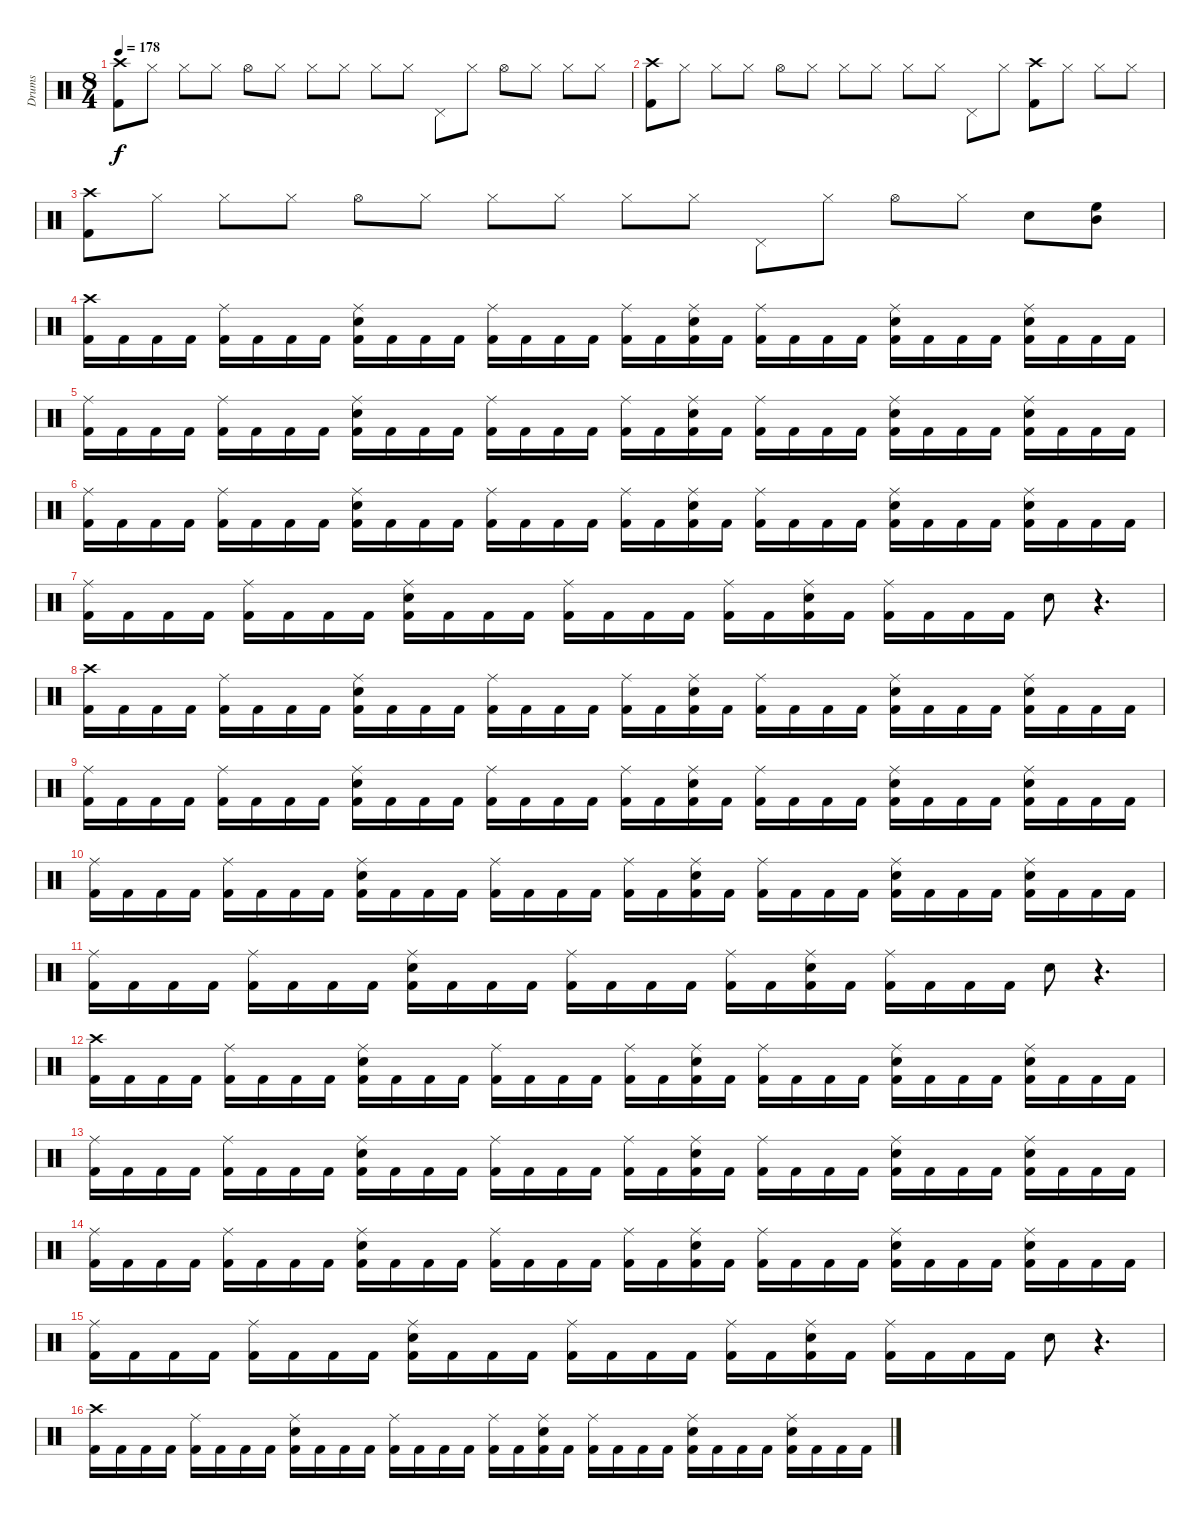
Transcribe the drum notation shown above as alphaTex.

\track ("Drums" "Drums") {instrument percussion}
\staff {score}
\articulation defaults
\ts (8 4)
\tempo 178
\clef neutral
\ks c
("Crash high (hit)" "Kick (hit) 2").8{dy f} "Hi-Hat (closed)".8 "Hi-Hat (closed)".8 "Hi-Hat (closed)".8 "Hi-Hat (open)".8 "Hi-Hat (closed)".8 "Hi-Hat (closed)".8 "Hi-Hat (closed)".8 "Hi-Hat (closed)".8 "Hi-Hat (closed)".8 "Pedal Hi-Hat (hit)".8 "Hi-Hat (closed)".8 "Hi-Hat (open)".8 "Hi-Hat (closed)".8 "Hi-Hat (closed)".8 "Hi-Hat (closed)".8 |
("Crash high (hit)" "Kick (hit) 2").8 "Hi-Hat (closed)".8 "Hi-Hat (closed)".8 "Hi-Hat (closed)".8 "Hi-Hat (open)".8 "Hi-Hat (closed)".8 "Hi-Hat (closed)".8 "Hi-Hat (closed)".8 "Hi-Hat (closed)".8 "Hi-Hat (closed)".8 "Pedal Hi-Hat (hit)".8 "Hi-Hat (closed)".8 ("Crash high (hit)" "Kick (hit) 2").8 "Hi-Hat (closed)".8 "Hi-Hat (closed)".8 "Hi-Hat (closed)".8 |
("Crash high (hit)" "Kick (hit) 2").8 "Hi-Hat (closed)".8 "Hi-Hat (closed)".8 "Hi-Hat (closed)".8 "Hi-Hat (open)".8 "Hi-Hat (closed)".8 "Hi-Hat (closed)".8 "Hi-Hat (closed)".8 "Hi-Hat (closed)".8 "Hi-Hat (closed)".8 "Pedal Hi-Hat (hit)".8 "Hi-Hat (closed)".8 "Hi-Hat (open)".8 "Hi-Hat (closed)".8 "Snare (hit) 2".8 ("Mid Tom (hit)" "High Floor Tom (hit)").8 |
("Crash high (hit)" "Kick (hit) 2").16 "Kick (hit) 2".16 "Kick (hit) 2".16 "Kick (hit) 2".16 ("Ride (middle)" "Kick (hit) 2").16 "Kick (hit) 2".16 "Kick (hit) 2".16 "Kick (hit) 2".16 ("Ride (middle)" "Snare (hit) 2" "Kick (hit) 2").16 "Kick (hit) 2".16 "Kick (hit) 2".16 "Kick (hit) 2".16 ("Ride (middle)" "Kick (hit) 2").16 "Kick (hit) 2".16 "Kick (hit) 2".16 "Kick (hit) 2".16 ("Ride (middle)" "Kick (hit) 2").16 "Kick (hit) 2".16 ("Ride (middle)" "Snare (hit) 2" "Kick (hit) 2").16 "Kick (hit) 2".16 ("Ride (middle)" "Kick (hit) 2").16 "Kick (hit) 2".16 "Kick (hit) 2".16 "Kick (hit) 2".16 ("Ride (middle)" "Snare (hit) 2" "Kick (hit) 2").16 "Kick (hit) 2".16 "Kick (hit) 2".16 "Kick (hit) 2".16 ("Ride (middle)" "Snare (hit) 2" "Kick (hit) 2").16 "Kick (hit) 2".16 "Kick (hit) 2".16 "Kick (hit) 2".16 |
("Ride (middle)" "Kick (hit) 2").16 "Kick (hit) 2".16 "Kick (hit) 2".16 "Kick (hit) 2".16 ("Ride (middle)" "Kick (hit) 2").16 "Kick (hit) 2".16 "Kick (hit) 2".16 "Kick (hit) 2".16 ("Ride (middle)" "Snare (hit) 2" "Kick (hit) 2").16 "Kick (hit) 2".16 "Kick (hit) 2".16 "Kick (hit) 2".16 ("Ride (middle)" "Kick (hit) 2").16 "Kick (hit) 2".16 "Kick (hit) 2".16 "Kick (hit) 2".16 ("Ride (middle)" "Kick (hit) 2").16 "Kick (hit) 2".16 ("Ride (middle)" "Snare (hit) 2" "Kick (hit) 2").16 "Kick (hit) 2".16 ("Ride (middle)" "Kick (hit) 2").16 "Kick (hit) 2".16 "Kick (hit) 2".16 "Kick (hit) 2".16 ("Ride (middle)" "Snare (hit) 2" "Kick (hit) 2").16 "Kick (hit) 2".16 "Kick (hit) 2".16 "Kick (hit) 2".16 ("Ride (middle)" "Snare (hit) 2" "Kick (hit) 2").16 "Kick (hit) 2".16 "Kick (hit) 2".16 "Kick (hit) 2".16 |
("Ride (middle)" "Kick (hit) 2").16 "Kick (hit) 2".16 "Kick (hit) 2".16 "Kick (hit) 2".16 ("Ride (middle)" "Kick (hit) 2").16 "Kick (hit) 2".16 "Kick (hit) 2".16 "Kick (hit) 2".16 ("Ride (middle)" "Snare (hit) 2" "Kick (hit) 2").16 "Kick (hit) 2".16 "Kick (hit) 2".16 "Kick (hit) 2".16 ("Ride (middle)" "Kick (hit) 2").16 "Kick (hit) 2".16 "Kick (hit) 2".16 "Kick (hit) 2".16 ("Ride (middle)" "Kick (hit) 2").16 "Kick (hit) 2".16 ("Ride (middle)" "Snare (hit) 2" "Kick (hit) 2").16 "Kick (hit) 2".16 ("Ride (middle)" "Kick (hit) 2").16 "Kick (hit) 2".16 "Kick (hit) 2".16 "Kick (hit) 2".16 ("Ride (middle)" "Snare (hit) 2" "Kick (hit) 2").16 "Kick (hit) 2".16 "Kick (hit) 2".16 "Kick (hit) 2".16 ("Ride (middle)" "Snare (hit) 2" "Kick (hit) 2").16 "Kick (hit) 2".16 "Kick (hit) 2".16 "Kick (hit) 2".16 |
("Ride (middle)" "Kick (hit) 2").16 "Kick (hit) 2".16 "Kick (hit) 2".16 "Kick (hit) 2".16 ("Ride (middle)" "Kick (hit) 2").16 "Kick (hit) 2".16 "Kick (hit) 2".16 "Kick (hit) 2".16 ("Ride (middle)" "Snare (hit) 2" "Kick (hit) 2").16 "Kick (hit) 2".16 "Kick (hit) 2".16 "Kick (hit) 2".16 ("Ride (middle)" "Kick (hit) 2").16 "Kick (hit) 2".16 "Kick (hit) 2".16 "Kick (hit) 2".16 ("Ride (middle)" "Kick (hit) 2").16 "Kick (hit) 2".16 ("Ride (middle)" "Snare (hit) 2" "Kick (hit) 2").16 "Kick (hit) 2".16 ("Ride (middle)" "Kick (hit) 2").16 "Kick (hit) 2".16 "Kick (hit) 2".16 "Kick (hit) 2".16 "Snare (hit) 2".8 r.4{d} |
("Crash high (hit)" "Kick (hit) 2").16 "Kick (hit) 2".16 "Kick (hit) 2".16 "Kick (hit) 2".16 ("Ride (middle)" "Kick (hit) 2").16 "Kick (hit) 2".16 "Kick (hit) 2".16 "Kick (hit) 2".16 ("Ride (middle)" "Snare (hit) 2" "Kick (hit) 2").16 "Kick (hit) 2".16 "Kick (hit) 2".16 "Kick (hit) 2".16 ("Ride (middle)" "Kick (hit) 2").16 "Kick (hit) 2".16 "Kick (hit) 2".16 "Kick (hit) 2".16 ("Ride (middle)" "Kick (hit) 2").16 "Kick (hit) 2".16 ("Ride (middle)" "Snare (hit) 2" "Kick (hit) 2").16 "Kick (hit) 2".16 ("Ride (middle)" "Kick (hit) 2").16 "Kick (hit) 2".16 "Kick (hit) 2".16 "Kick (hit) 2".16 ("Ride (middle)" "Snare (hit) 2" "Kick (hit) 2").16 "Kick (hit) 2".16 "Kick (hit) 2".16 "Kick (hit) 2".16 ("Ride (middle)" "Snare (hit) 2" "Kick (hit) 2").16 "Kick (hit) 2".16 "Kick (hit) 2".16 "Kick (hit) 2".16 |
("Ride (middle)" "Kick (hit) 2").16 "Kick (hit) 2".16 "Kick (hit) 2".16 "Kick (hit) 2".16 ("Ride (middle)" "Kick (hit) 2").16 "Kick (hit) 2".16 "Kick (hit) 2".16 "Kick (hit) 2".16 ("Ride (middle)" "Snare (hit) 2" "Kick (hit) 2").16 "Kick (hit) 2".16 "Kick (hit) 2".16 "Kick (hit) 2".16 ("Ride (middle)" "Kick (hit) 2").16 "Kick (hit) 2".16 "Kick (hit) 2".16 "Kick (hit) 2".16 ("Ride (middle)" "Kick (hit) 2").16 "Kick (hit) 2".16 ("Ride (middle)" "Snare (hit) 2" "Kick (hit) 2").16 "Kick (hit) 2".16 ("Ride (middle)" "Kick (hit) 2").16 "Kick (hit) 2".16 "Kick (hit) 2".16 "Kick (hit) 2".16 ("Ride (middle)" "Snare (hit) 2" "Kick (hit) 2").16 "Kick (hit) 2".16 "Kick (hit) 2".16 "Kick (hit) 2".16 ("Ride (middle)" "Snare (hit) 2" "Kick (hit) 2").16 "Kick (hit) 2".16 "Kick (hit) 2".16 "Kick (hit) 2".16 |
("Ride (middle)" "Kick (hit) 2").16 "Kick (hit) 2".16 "Kick (hit) 2".16 "Kick (hit) 2".16 ("Ride (middle)" "Kick (hit) 2").16 "Kick (hit) 2".16 "Kick (hit) 2".16 "Kick (hit) 2".16 ("Ride (middle)" "Snare (hit) 2" "Kick (hit) 2").16 "Kick (hit) 2".16 "Kick (hit) 2".16 "Kick (hit) 2".16 ("Ride (middle)" "Kick (hit) 2").16 "Kick (hit) 2".16 "Kick (hit) 2".16 "Kick (hit) 2".16 ("Ride (middle)" "Kick (hit) 2").16 "Kick (hit) 2".16 ("Ride (middle)" "Snare (hit) 2" "Kick (hit) 2").16 "Kick (hit) 2".16 ("Ride (middle)" "Kick (hit) 2").16 "Kick (hit) 2".16 "Kick (hit) 2".16 "Kick (hit) 2".16 ("Ride (middle)" "Snare (hit) 2" "Kick (hit) 2").16 "Kick (hit) 2".16 "Kick (hit) 2".16 "Kick (hit) 2".16 ("Ride (middle)" "Snare (hit) 2" "Kick (hit) 2").16 "Kick (hit) 2".16 "Kick (hit) 2".16 "Kick (hit) 2".16 |
("Ride (middle)" "Kick (hit) 2").16 "Kick (hit) 2".16 "Kick (hit) 2".16 "Kick (hit) 2".16 ("Ride (middle)" "Kick (hit) 2").16 "Kick (hit) 2".16 "Kick (hit) 2".16 "Kick (hit) 2".16 ("Ride (middle)" "Snare (hit) 2" "Kick (hit) 2").16 "Kick (hit) 2".16 "Kick (hit) 2".16 "Kick (hit) 2".16 ("Ride (middle)" "Kick (hit) 2").16 "Kick (hit) 2".16 "Kick (hit) 2".16 "Kick (hit) 2".16 ("Ride (middle)" "Kick (hit) 2").16 "Kick (hit) 2".16 ("Ride (middle)" "Snare (hit) 2" "Kick (hit) 2").16 "Kick (hit) 2".16 ("Ride (middle)" "Kick (hit) 2").16 "Kick (hit) 2".16 "Kick (hit) 2".16 "Kick (hit) 2".16 "Snare (hit) 2".8 r.4{d} |
("Crash high (hit)" "Kick (hit) 2").16 "Kick (hit) 2".16 "Kick (hit) 2".16 "Kick (hit) 2".16 ("Ride (middle)" "Kick (hit) 2").16 "Kick (hit) 2".16 "Kick (hit) 2".16 "Kick (hit) 2".16 ("Ride (middle)" "Snare (hit) 2" "Kick (hit) 2").16 "Kick (hit) 2".16 "Kick (hit) 2".16 "Kick (hit) 2".16 ("Ride (middle)" "Kick (hit) 2").16 "Kick (hit) 2".16 "Kick (hit) 2".16 "Kick (hit) 2".16 ("Ride (middle)" "Kick (hit) 2").16 "Kick (hit) 2".16 ("Ride (middle)" "Snare (hit) 2" "Kick (hit) 2").16 "Kick (hit) 2".16 ("Ride (middle)" "Kick (hit) 2").16 "Kick (hit) 2".16 "Kick (hit) 2".16 "Kick (hit) 2".16 ("Ride (middle)" "Snare (hit) 2" "Kick (hit) 2").16 "Kick (hit) 2".16 "Kick (hit) 2".16 "Kick (hit) 2".16 ("Ride (middle)" "Snare (hit) 2" "Kick (hit) 2").16 "Kick (hit) 2".16 "Kick (hit) 2".16 "Kick (hit) 2".16 |
("Ride (middle)" "Kick (hit) 2").16 "Kick (hit) 2".16 "Kick (hit) 2".16 "Kick (hit) 2".16 ("Ride (middle)" "Kick (hit) 2").16 "Kick (hit) 2".16 "Kick (hit) 2".16 "Kick (hit) 2".16 ("Ride (middle)" "Snare (hit) 2" "Kick (hit) 2").16 "Kick (hit) 2".16 "Kick (hit) 2".16 "Kick (hit) 2".16 ("Ride (middle)" "Kick (hit) 2").16 "Kick (hit) 2".16 "Kick (hit) 2".16 "Kick (hit) 2".16 ("Ride (middle)" "Kick (hit) 2").16 "Kick (hit) 2".16 ("Ride (middle)" "Snare (hit) 2" "Kick (hit) 2").16 "Kick (hit) 2".16 ("Ride (middle)" "Kick (hit) 2").16 "Kick (hit) 2".16 "Kick (hit) 2".16 "Kick (hit) 2".16 ("Ride (middle)" "Snare (hit) 2" "Kick (hit) 2").16 "Kick (hit) 2".16 "Kick (hit) 2".16 "Kick (hit) 2".16 ("Ride (middle)" "Snare (hit) 2" "Kick (hit) 2").16 "Kick (hit) 2".16 "Kick (hit) 2".16 "Kick (hit) 2".16 |
("Ride (middle)" "Kick (hit) 2").16 "Kick (hit) 2".16 "Kick (hit) 2".16 "Kick (hit) 2".16 ("Ride (middle)" "Kick (hit) 2").16 "Kick (hit) 2".16 "Kick (hit) 2".16 "Kick (hit) 2".16 ("Ride (middle)" "Snare (hit) 2" "Kick (hit) 2").16 "Kick (hit) 2".16 "Kick (hit) 2".16 "Kick (hit) 2".16 ("Ride (middle)" "Kick (hit) 2").16 "Kick (hit) 2".16 "Kick (hit) 2".16 "Kick (hit) 2".16 ("Ride (middle)" "Kick (hit) 2").16 "Kick (hit) 2".16 ("Ride (middle)" "Snare (hit) 2" "Kick (hit) 2").16 "Kick (hit) 2".16 ("Ride (middle)" "Kick (hit) 2").16 "Kick (hit) 2".16 "Kick (hit) 2".16 "Kick (hit) 2".16 ("Ride (middle)" "Snare (hit) 2" "Kick (hit) 2").16 "Kick (hit) 2".16 "Kick (hit) 2".16 "Kick (hit) 2".16 ("Ride (middle)" "Snare (hit) 2" "Kick (hit) 2").16 "Kick (hit) 2".16 "Kick (hit) 2".16 "Kick (hit) 2".16 |
("Ride (middle)" "Kick (hit) 2").16 "Kick (hit) 2".16 "Kick (hit) 2".16 "Kick (hit) 2".16 ("Ride (middle)" "Kick (hit) 2").16 "Kick (hit) 2".16 "Kick (hit) 2".16 "Kick (hit) 2".16 ("Ride (middle)" "Snare (hit) 2" "Kick (hit) 2").16 "Kick (hit) 2".16 "Kick (hit) 2".16 "Kick (hit) 2".16 ("Ride (middle)" "Kick (hit) 2").16 "Kick (hit) 2".16 "Kick (hit) 2".16 "Kick (hit) 2".16 ("Ride (middle)" "Kick (hit) 2").16 "Kick (hit) 2".16 ("Ride (middle)" "Snare (hit) 2" "Kick (hit) 2").16 "Kick (hit) 2".16 ("Ride (middle)" "Kick (hit) 2").16 "Kick (hit) 2".16 "Kick (hit) 2".16 "Kick (hit) 2".16 "Snare (hit) 2".8 r.4{d} |
("Crash high (hit)" "Kick (hit) 2").16 "Kick (hit) 2".16 "Kick (hit) 2".16 "Kick (hit) 2".16 ("Ride (middle)" "Kick (hit) 2").16 "Kick (hit) 2".16 "Kick (hit) 2".16 "Kick (hit) 2".16 ("Ride (middle)" "Snare (hit) 2" "Kick (hit) 2").16 "Kick (hit) 2".16 "Kick (hit) 2".16 "Kick (hit) 2".16 ("Ride (middle)" "Kick (hit) 2").16 "Kick (hit) 2".16 "Kick (hit) 2".16 "Kick (hit) 2".16 ("Ride (middle)" "Kick (hit) 2").16 "Kick (hit) 2".16 ("Ride (middle)" "Snare (hit) 2" "Kick (hit) 2").16 "Kick (hit) 2".16 ("Ride (middle)" "Kick (hit) 2").16 "Kick (hit) 2".16 "Kick (hit) 2".16 "Kick (hit) 2".16 ("Ride (middle)" "Snare (hit) 2" "Kick (hit) 2").16 "Kick (hit) 2".16 "Kick (hit) 2".16 "Kick (hit) 2".16 ("Ride (middle)" "Snare (hit) 2" "Kick (hit) 2").16 "Kick (hit) 2".16 "Kick (hit) 2".16 "Kick (hit) 2".16
